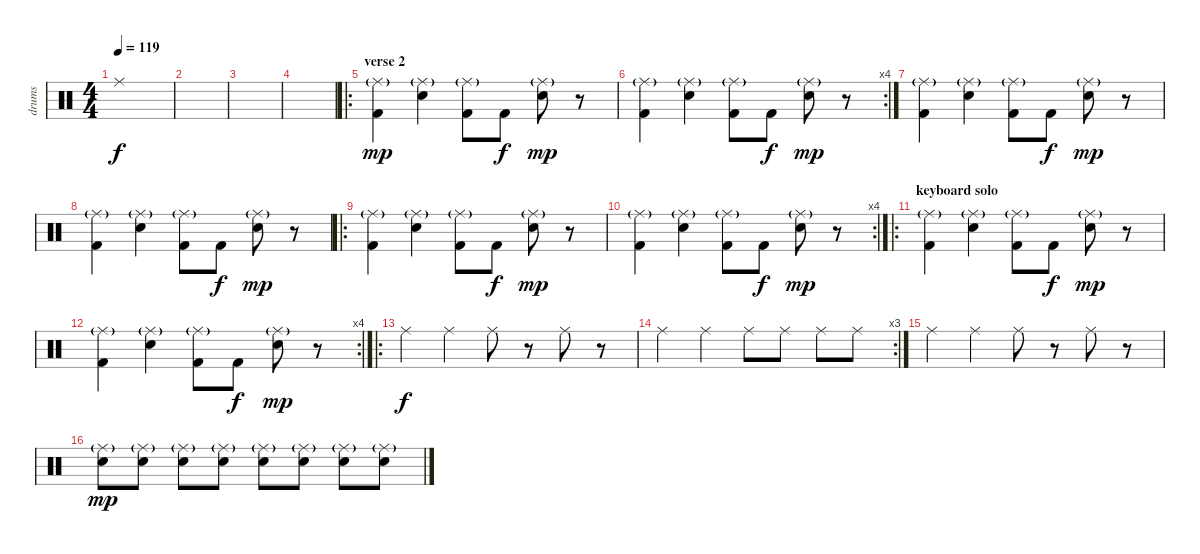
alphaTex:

\track ("drums" "drums") {instrument percussion}
\staff {score}
\articulation defaults
\ts (4 4)
\tempo 119
\clef neutral
\ks c "Ride (middle)".1{dy f}
|
|
|
|
\ro
\section ("" "verse 2")
("Kick (hit) 2" "Ride (middle)"{g}).4{dy mp} ("Electric Snare (hit)" "Ride (middle)"{g}).4 ("Kick (hit) 2" "Ride (middle)"{g}).8 "Kick (hit) 2".8{dy f} ("Electric Snare (hit)" "Ride (middle)"{g}).8{dy mp} r.8 |
\rc 4
("Kick (hit) 2" "Ride (middle)"{g}).4 ("Electric Snare (hit)" "Ride (middle)"{g}).4 ("Kick (hit) 2" "Ride (middle)"{g}).8 "Kick (hit) 2".8{dy f} ("Electric Snare (hit)" "Ride (middle)"{g}).8{dy mp} r.8 |
("Kick (hit) 2" "Ride (middle)"{g}).4 ("Electric Snare (hit)" "Ride (middle)"{g}).4 ("Kick (hit) 2" "Ride (middle)"{g}).8 "Kick (hit) 2".8{dy f} ("Electric Snare (hit)" "Ride (middle)"{g}).8{dy mp} r.8 |
("Kick (hit) 2" "Ride (middle)"{g}).4 ("Electric Snare (hit)" "Ride (middle)"{g}).4 ("Kick (hit) 2" "Ride (middle)"{g}).8 "Kick (hit) 2".8{dy f} ("Electric Snare (hit)" "Ride (middle)"{g}).8{dy mp} r.8 |
\ro
("Kick (hit) 2" "Ride (middle)"{g}).4 ("Electric Snare (hit)" "Ride (middle)"{g}).4 ("Kick (hit) 2" "Ride (middle)"{g}).8 "Kick (hit) 2".8{dy f} ("Electric Snare (hit)" "Ride (middle)"{g}).8{dy mp} r.8 |
\rc 4
("Kick (hit) 2" "Ride (middle)"{g}).4 ("Electric Snare (hit)" "Ride (middle)"{g}).4 ("Kick (hit) 2" "Ride (middle)"{g}).8 "Kick (hit) 2".8{dy f} ("Electric Snare (hit)" "Ride (middle)"{g}).8{dy mp} r.8 |
\ro
\section ("" "keyboard solo")
("Kick (hit) 2" "Ride (middle)"{g}).4 ("Electric Snare (hit)" "Ride (middle)"{g}).4 ("Kick (hit) 2" "Ride (middle)"{g}).8 "Kick (hit) 2".8{dy f} ("Electric Snare (hit)" "Ride (middle)"{g}).8{dy mp} r.8 |
\rc 4
("Kick (hit) 2" "Ride (middle)"{g}).4 ("Electric Snare (hit)" "Ride (middle)"{g}).4 ("Kick (hit) 2" "Ride (middle)"{g}).8 "Kick (hit) 2".8{dy f} ("Electric Snare (hit)" "Ride (middle)"{g}).8{dy mp} r.8 |
\ro "Ride (middle)".4{dy f volume 8} "Ride (middle)".4 "Ride (middle)".8
r.8 "Ride (middle)".8 r.8 |
\rc 3 "Ride (middle)".4 "Ride (middle)".4 "Ride (middle)".8 "Ride (middle)".8 "Ride (middle)".8 "Ride (middle)".8
|
"Ride (middle)".4 "Ride (middle)".4 "Ride (middle)".8 r.8 "Ride (middle)".8 r.8 |
("Electric Snare (hit)" "Ride (middle)"{g}).8{dy mp volume 15} ("Electric Snare (hit)" "Ride (middle)"{g}).8 ("Electric Snare (hit)" "Ride (middle)"{g}).8 ("Electric Snare (hit)" "Ride (middle)"{g}).8 ("Electric Snare (hit)" "Ride (middle)"{g}).8 ("Electric Snare (hit)" "Ride (middle)"{g}).8 ("Electric Snare (hit)" "Ride (middle)"{g}).8 ("Electric Snare (hit)" "Ride (middle)"{g}).8
